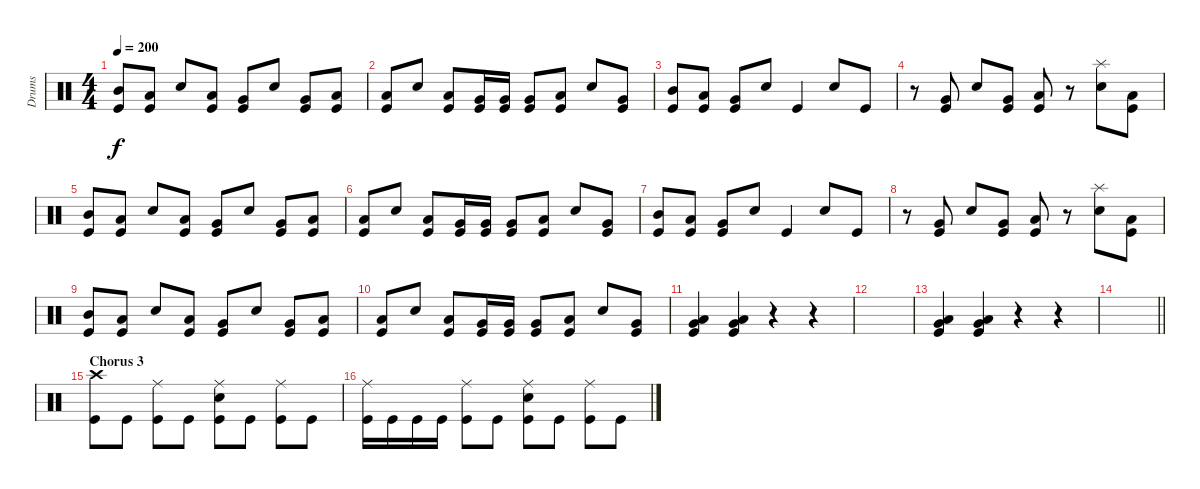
\track ("Drums" "Drums") {instrument percussion}
\staff {score}
\articulation defaults
\ts (4 4)
\tempo 200
\clef neutral
\ks c
("Mid Tom (hit)" "Kick (hit)").8{dy f} ("Low Tom (hit)" "Kick (hit)").8 "Snare (hit) 2".8 ("Low Tom (hit)" "Kick (hit)").8 ("Very Low Tom (hit)" "Kick (hit)").8 "Snare (hit) 2".8 ("Very Low Tom (hit)" "Kick (hit)").8 ("Low Floor Tom (hit)" "Kick (hit)").8 |
("Low Tom (hit)" "Kick (hit)").8 "Snare (hit) 2".8 ("Low Tom (hit)" "Kick (hit)").8 ("Very Low Tom (hit)" "Kick (hit)").16 ("Very Low Tom (hit)" "Kick (hit)").16 ("Very Low Tom (hit)" "Kick (hit)").8 ("Low Floor Tom (hit)" "Kick (hit)").8 "Snare (hit) 2".8 ("Very Low Tom (hit)" "Kick (hit)").8 |
("Mid Tom (hit)" "Kick (hit)").8 ("Low Tom (hit)" "Kick (hit)").8 ("Very Low Tom (hit)" "Kick (hit)").8 "Snare (hit) 2".8 "Kick (hit)".4 "Snare (hit) 2".8 "Kick (hit)".8 |
r.8 ("Very Low Tom (hit)" "Kick (hit)").8 "Snare (hit) 2".8 ("Very Low Tom (hit)" "Kick (hit)").8 ("Low Floor Tom (hit)" "Kick (hit)").8 r.8 ("Splash (hit)" "Snare (hit) 2").8 ("Low Floor Tom (hit)" "Kick (hit)").8 |
("Mid Tom (hit)" "Kick (hit)").8 ("Low Tom (hit)" "Kick (hit)").8 "Snare (hit) 2".8 ("Low Tom (hit)" "Kick (hit)").8 ("Very Low Tom (hit)" "Kick (hit)").8 "Snare (hit) 2".8 ("Very Low Tom (hit)" "Kick (hit)").8 ("Low Floor Tom (hit)" "Kick (hit)").8 |
("Low Tom (hit)" "Kick (hit)").8 "Snare (hit) 2".8 ("Low Tom (hit)" "Kick (hit)").8 ("Very Low Tom (hit)" "Kick (hit)").16 ("Very Low Tom (hit)" "Kick (hit)").16 ("Very Low Tom (hit)" "Kick (hit)").8 ("Low Floor Tom (hit)" "Kick (hit)").8 "Snare (hit) 2".8 ("Very Low Tom (hit)" "Kick (hit)").8 |
("Mid Tom (hit)" "Kick (hit)").8 ("Low Tom (hit)" "Kick (hit)").8 ("Very Low Tom (hit)" "Kick (hit)").8 "Snare (hit) 2".8 "Kick (hit)".4 "Snare (hit) 2".8 "Kick (hit)".8 |
r.8 ("Very Low Tom (hit)" "Kick (hit)").8 "Snare (hit) 2".8 ("Very Low Tom (hit)" "Kick (hit)").8 ("Low Floor Tom (hit)" "Kick (hit)").8 r.8 ("Splash (hit)" "Snare (hit) 2").8 ("Low Floor Tom (hit)" "Kick (hit)").8 |
("Mid Tom (hit)" "Kick (hit)").8 ("Low Tom (hit)" "Kick (hit)").8 "Snare (hit) 2".8 ("Low Tom (hit)" "Kick (hit)").8 ("Very Low Tom (hit)" "Kick (hit)").8 "Snare (hit) 2".8 ("Very Low Tom (hit)" "Kick (hit)").8 ("Low Floor Tom (hit)" "Kick (hit)").8 |
("Low Tom (hit)" "Kick (hit)").8 "Snare (hit) 2".8 ("Low Tom (hit)" "Kick (hit)").8 ("Very Low Tom (hit)" "Kick (hit)").16 ("Very Low Tom (hit)" "Kick (hit)").16 ("Very Low Tom (hit)" "Kick (hit)").8 ("Low Floor Tom (hit)" "Kick (hit)").8 "Snare (hit) 2".8 ("Very Low Tom (hit)" "Kick (hit)").8 |
("Kick (hit)" "Very Low Tom (hit)" "Low Floor Tom (hit)").4 ("Kick (hit)" "Very Low Tom (hit)" "Low Floor Tom (hit)").4 r.4 r.4 |
|
("Kick (hit)" "Very Low Tom (hit)" "Low Floor Tom (hit)").4 ("Kick (hit)" "Very Low Tom (hit)" "Low Floor Tom (hit)").4 r.4 r.4 |
\barLineRight lightlight
|
\section ("" "Chorus 3")
("Crash high (hit)" "Kick (hit)").8 "Kick (hit)".8 ("Ride (middle)" "Kick (hit)").8 "Kick (hit)".8 ("Ride (middle)" "Snare (hit) 2" "Kick (hit)").8 "Kick (hit)".8 ("Ride (middle)" "Kick (hit)").8 "Kick (hit)".8 |
("Ride (middle)" "Kick (hit)").16 "Kick (hit)".16 "Kick (hit)".16 "Kick (hit)".16 ("Ride (middle)" "Kick (hit)").8 "Kick (hit)".8 ("Snare (hit) 2" "Ride (middle)" "Kick (hit)").8 "Kick (hit)".8 ("Ride (middle)" "Kick (hit)").8 "Kick (hit)".8
